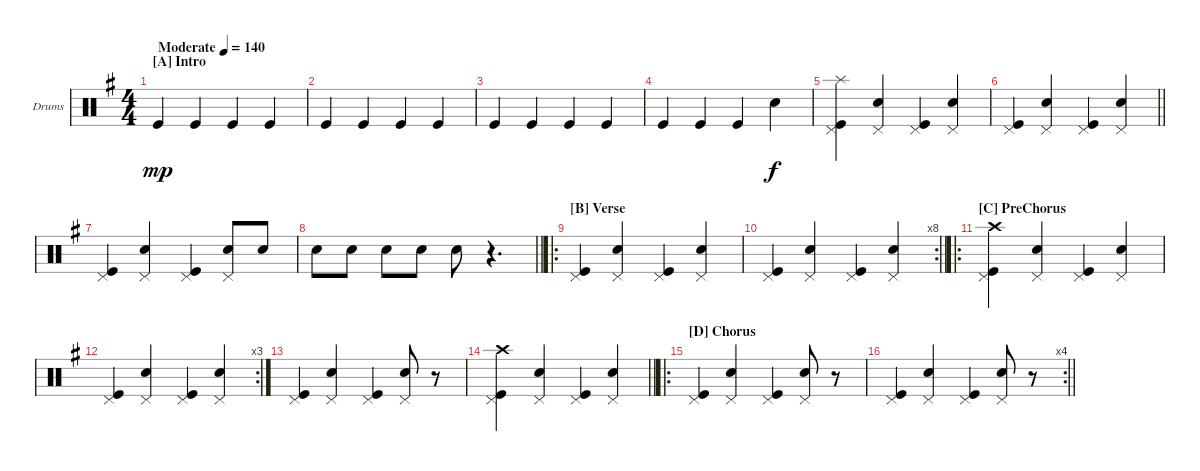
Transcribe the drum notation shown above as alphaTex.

\bracketExtendMode groupsimilarinstruments
\firstSystemTrackNameOrientation horizontal
\otherSystemsTrackNameOrientation horizontal
\track ("Drumkit" "Drums") {instrument percussion}
\staff {score}
\articulation defaults
\ts (4 4)
\beaming (8 2 2 2 2)
\section ("A" "Intro")
\tempo (140 "Moderate")
\clef neutral
\scale
1.07314
\ks g "Kick (hit)".4{dy mp} "Kick (hit)".4 "Kick (hit)".4 "Kick (hit)".4
|
\scale
0.92686 "Kick (hit)".4 "Kick (hit)".4 "Kick (hit)".4 "Kick (hit)".4 |
\scale
1.04288 "Kick (hit)".4 "Kick (hit)".4 "Kick (hit)".4 "Kick (hit)".4 |
\scale
0.957125 "Kick (hit)".4 "Kick (hit)".4 "Kick (hit)".4 "Snare (hit) 2".4{dy f} |
\scale
1.04288 ("Kick (hit)" "Pedal Hi-Hat (hit)" "Splash (hit)").4 ("Snare (hit) 2" "Pedal Hi-Hat (hit)").4 ("Kick (hit)" "Pedal Hi-Hat (hit)").4 ("Snare (hit) 2" "Pedal Hi-Hat (hit)").4 |
\scale
0.957125
\barLineRight lightlight
("Kick (hit)" "Pedal Hi-Hat (hit)").4 ("Snare (hit) 2" "Pedal Hi-Hat (hit)").4 ("Kick (hit)" "Pedal Hi-Hat (hit)").4 ("Snare (hit) 2" "Pedal Hi-Hat (hit)").4 |
\section ("" "")
\scale
1.04288 ("Kick (hit)" "Pedal Hi-Hat (hit)").4 ("Snare (hit) 2" "Pedal Hi-Hat (hit)").4 ("Kick (hit)" "Pedal Hi-Hat (hit)").4 ("Snare (hit) 2" "Pedal Hi-Hat (hit)").8 "Snare (hit) 2".8 |
\scale
0.957125
\barLineRight lightlight "Snare (hit) 2".8 "Snare (hit) 2".8 "Snare (hit) 2".8 "Snare (hit) 2".8 "Snare (hit) 2".8
r.4{d} |
\ro
\section ("B" "Verse")
\scale
1.04288 ("Kick (hit)" "Pedal Hi-Hat (hit)").4 ("Snare (hit) 2" "Pedal Hi-Hat (hit)").4 ("Kick (hit)" "Pedal Hi-Hat (hit)").4 ("Snare (hit) 2" "Pedal Hi-Hat (hit)").4 |
\rc 8
\scale
0.957125
\barLineRight lightlight
("Kick (hit)" "Pedal Hi-Hat (hit)").4 ("Snare (hit) 2" "Pedal Hi-Hat (hit)").4 ("Kick (hit)" "Pedal Hi-Hat (hit)").4 ("Snare (hit) 2" "Pedal Hi-Hat (hit)").4 |
\ro
\section ("C" "PreChorus")
\scale
1.04288 ("Kick (hit)" "Pedal Hi-Hat (hit)" "Crash high (hit)").4 ("Snare (hit) 2" "Pedal Hi-Hat (hit)").4 ("Kick (hit)" "Pedal Hi-Hat (hit)").4 ("Snare (hit) 2" "Pedal Hi-Hat (hit)").4 |
\rc 3
\scale
0.957125 ("Kick (hit)" "Pedal Hi-Hat (hit)").4 ("Snare (hit) 2" "Pedal Hi-Hat (hit)").4 ("Kick (hit)" "Pedal Hi-Hat (hit)").4 ("Snare (hit) 2" "Pedal Hi-Hat (hit)").4 |
\scale
1.04288 ("Kick (hit)" "Pedal Hi-Hat (hit)").4 ("Snare (hit) 2" "Pedal Hi-Hat (hit)").4 ("Kick (hit)" "Pedal Hi-Hat (hit)").4 ("Snare (hit) 2" "Pedal Hi-Hat (hit)").8 r.8 |
\scale
0.957125
\barLineRight lightlight
("Kick (hit)" "Pedal Hi-Hat (hit)" "Crash high (hit)").4 ("Snare (hit) 2" "Pedal Hi-Hat (hit)").4 ("Kick (hit)" "Pedal Hi-Hat (hit)").4 ("Snare (hit) 2" "Pedal Hi-Hat (hit)").4 |
\ro
\section ("D" "Chorus")
\scale
1.04288 ("Kick (hit)" "Pedal Hi-Hat (hit)").4 ("Snare (hit) 2" "Pedal Hi-Hat (hit)").4 ("Kick (hit)" "Pedal Hi-Hat (hit)").4 ("Snare (hit) 2" "Pedal Hi-Hat (hit)").8 r.8 |
\rc 4
\scale
0.957125
\barLineRight lightlight
("Kick (hit)" "Pedal Hi-Hat (hit)").4 ("Snare (hit) 2" "Pedal Hi-Hat (hit)").4 ("Kick (hit)" "Pedal Hi-Hat (hit)").4 ("Snare (hit) 2" "Pedal Hi-Hat (hit)").8 r.8
